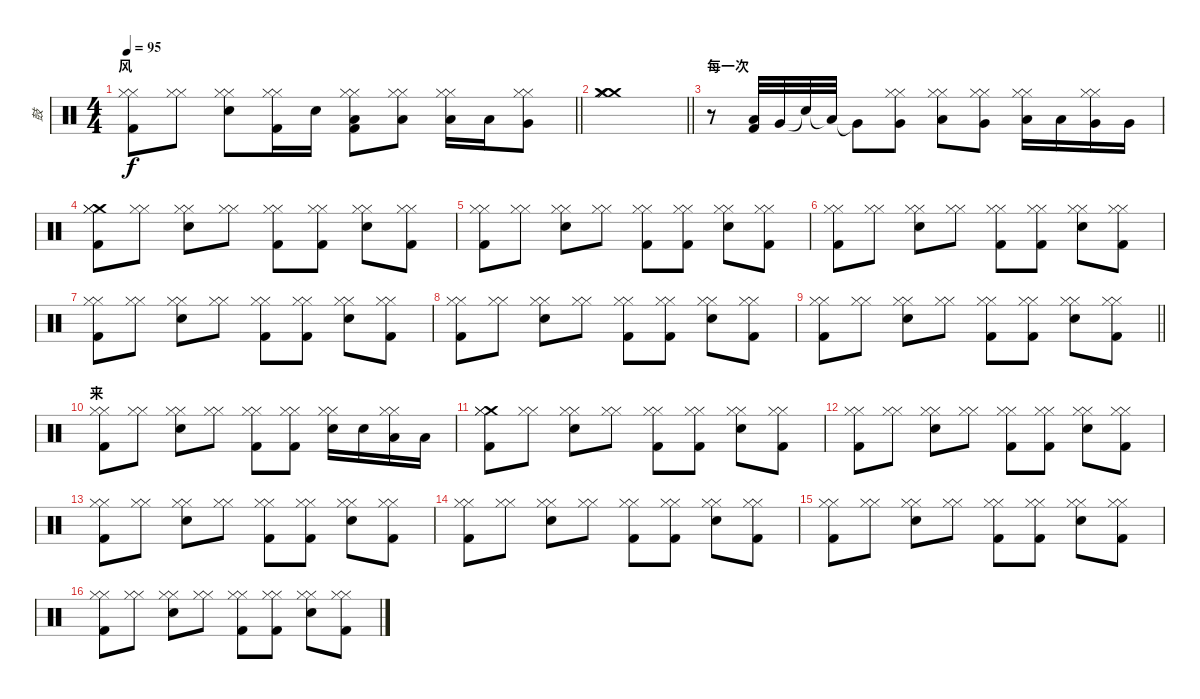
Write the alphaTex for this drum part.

\track ("鼓" "鼓") {instrument percussion}
\staff {score}
\articulation defaults
\ts (4 4)
\section ("" "风")
\tempo 95
\clef neutral
\barLineRight lightlight
\ks c
("Hi-Hat (closed)" "Hi-Hat (closed)" "Kick (hit) 2").8{dy f} ("Hi-Hat (closed)" "Hi-Hat (closed)").8 ("Hi-Hat (closed)" "Hi-Hat (closed)" "Metronome (bell)").8 ("Hi-Hat (closed)" "Hi-Hat (closed)" "Kick (hit) 2").16 "Metronome (bell)".16 ("Hi-Hat (closed)" "Hi-Hat (closed)" "Low Floor Tom (hit)" "Kick (hit) 2").8 ("Hi-Hat (closed)" "Hi-Hat (closed)" "Low Tom (hit)").8 ("Hi-Hat (closed)" "Hi-Hat (closed)" "Low Floor Tom (hit)").16{volume 11} "Low Tom (hit)".16{volume 12} ("Hi-Hat (closed)" "Hi-Hat (closed)" "Very Low Tom (hit)").8{volume 13} |
\section ("" "")
\barLineRight lightlight
("Crash medium (hit)" "Hi-Hat (closed)" "Hi-Hat (closed)" "Crash medium (hit)").1{volume 14} |
\section ("" "每一次")
r.8 ("Low Floor Tom (hit)" "Kick (hit) 2").32{volume 11} "Very Low Tom (hit)".32 "Snare (hit)"{t}.32 "Low Tom (hit)"{t}.32 "Very Low Tom (hit)"{t}.8 ("Very Low Tom (hit)" "Hi-Hat (closed)" "Hi-Hat (closed)").8{volume 11} ("Low Floor Tom (hit)" "Hi-Hat (closed)" "Hi-Hat (closed)").8 ("Very Low Tom (hit)" "Hi-Hat (closed)" "Hi-Hat (closed)").8 ("Hi-Hat (closed)" "Hi-Hat (closed)" "Low Floor Tom (hit)").16{volume 11} "Low Tom (hit)".16{volume 12} ("Hi-Hat (closed)" "Hi-Hat (closed)" "Very Low Tom (hit)").16{volume 13} "Very Low Tom (hit)".16{volume 14} |
("Crash medium (hit)" "Hi-Hat (closed)" "Hi-Hat (closed)" "Kick (hit) 2").8{volume 13} ("Hi-Hat (closed)" "Hi-Hat (closed)").8 ("Hi-Hat (closed)" "Hi-Hat (closed)" "Metronome (bell)").8 ("Hi-Hat (closed)" "Hi-Hat (closed)").8 ("Hi-Hat (closed)" "Hi-Hat (closed)" "Kick (hit) 2").8 ("Hi-Hat (closed)" "Hi-Hat (closed)" "Kick (hit) 2").8 ("Hi-Hat (closed)" "Hi-Hat (closed)" "Metronome (bell)").8 ("Hi-Hat (closed)" "Hi-Hat (closed)" "Kick (hit) 2").8 |
("Hi-Hat (closed)" "Hi-Hat (closed)" "Kick (hit) 2").8 ("Hi-Hat (closed)" "Hi-Hat (closed)").8 ("Hi-Hat (closed)" "Hi-Hat (closed)" "Metronome (bell)").8 ("Hi-Hat (closed)" "Hi-Hat (closed)").8 ("Hi-Hat (closed)" "Hi-Hat (closed)" "Kick (hit) 2").8 ("Hi-Hat (closed)" "Hi-Hat (closed)" "Kick (hit) 2").8 ("Hi-Hat (closed)" "Hi-Hat (closed)" "Metronome (bell)").8 ("Hi-Hat (closed)" "Hi-Hat (closed)" "Kick (hit) 2").8 |
("Hi-Hat (closed)" "Hi-Hat (closed)" "Kick (hit) 2").8 ("Hi-Hat (closed)" "Hi-Hat (closed)").8 ("Hi-Hat (closed)" "Hi-Hat (closed)" "Metronome (bell)").8 ("Hi-Hat (closed)" "Hi-Hat (closed)").8 ("Hi-Hat (closed)" "Hi-Hat (closed)" "Kick (hit) 2").8 ("Hi-Hat (closed)" "Hi-Hat (closed)" "Kick (hit) 2").8 ("Hi-Hat (closed)" "Hi-Hat (closed)" "Metronome (bell)").8 ("Hi-Hat (closed)" "Hi-Hat (closed)" "Kick (hit) 2").8 |
("Hi-Hat (closed)" "Hi-Hat (closed)" "Kick (hit) 2").8 ("Hi-Hat (closed)" "Hi-Hat (closed)").8 ("Hi-Hat (closed)" "Hi-Hat (closed)" "Metronome (bell)").8 ("Hi-Hat (closed)" "Hi-Hat (closed)").8 ("Hi-Hat (closed)" "Hi-Hat (closed)" "Kick (hit) 2").8 ("Hi-Hat (closed)" "Hi-Hat (closed)" "Kick (hit) 2").8 ("Hi-Hat (closed)" "Hi-Hat (closed)" "Metronome (bell)").8 ("Hi-Hat (closed)" "Hi-Hat (closed)" "Kick (hit) 2").8 |
("Hi-Hat (closed)" "Hi-Hat (closed)" "Kick (hit) 2").8 ("Hi-Hat (closed)" "Hi-Hat (closed)").8 ("Hi-Hat (closed)" "Hi-Hat (closed)" "Metronome (bell)").8 ("Hi-Hat (closed)" "Hi-Hat (closed)").8 ("Hi-Hat (closed)" "Hi-Hat (closed)" "Kick (hit) 2").8 ("Hi-Hat (closed)" "Hi-Hat (closed)" "Kick (hit) 2").8 ("Hi-Hat (closed)" "Hi-Hat (closed)" "Metronome (bell)").8 ("Hi-Hat (closed)" "Hi-Hat (closed)" "Kick (hit) 2").8 |
\barLineRight lightlight
("Hi-Hat (closed)" "Hi-Hat (closed)" "Kick (hit) 2").8 ("Hi-Hat (closed)" "Hi-Hat (closed)").8 ("Hi-Hat (closed)" "Hi-Hat (closed)" "Metronome (bell)").8 ("Hi-Hat (closed)" "Hi-Hat (closed)").8 ("Hi-Hat (closed)" "Hi-Hat (closed)" "Kick (hit) 2").8 ("Hi-Hat (closed)" "Hi-Hat (closed)" "Kick (hit) 2").8 ("Hi-Hat (closed)" "Hi-Hat (closed)" "Metronome (bell)").8 ("Hi-Hat (closed)" "Hi-Hat (closed)" "Kick (hit) 2").8 |
\section ("" "来")
("Hi-Hat (closed)" "Hi-Hat (closed)" "Kick (hit) 2").8 ("Hi-Hat (closed)" "Hi-Hat (closed)").8 ("Hi-Hat (closed)" "Hi-Hat (closed)" "Metronome (bell)").8 ("Hi-Hat (closed)" "Hi-Hat (closed)").8 ("Hi-Hat (closed)" "Hi-Hat (closed)" "Kick (hit) 2").8 ("Hi-Hat (closed)" "Hi-Hat (closed)" "Kick (hit) 2").8 ("Hi-Hat (closed)" "Hi-Hat (closed)" "Metronome (bell)").16{volume 11} "Metronome (bell)".16{volume 12} ("Hi-Hat (closed)" "Hi-Hat (closed)" "Low Tom (hit)").16{volume 13} "Low Tom (hit)".16{volume 14} |
("Crash medium (hit)" "Hi-Hat (closed)" "Hi-Hat (closed)" "Kick (hit) 2").8{volume 13} ("Hi-Hat (closed)" "Hi-Hat (closed)").8 ("Hi-Hat (closed)" "Hi-Hat (closed)" "Metronome (bell)").8 ("Hi-Hat (closed)" "Hi-Hat (closed)").8 ("Hi-Hat (closed)" "Hi-Hat (closed)" "Kick (hit) 2").8 ("Hi-Hat (closed)" "Hi-Hat (closed)" "Kick (hit) 2").8 ("Hi-Hat (closed)" "Hi-Hat (closed)" "Metronome (bell)").8 ("Hi-Hat (closed)" "Hi-Hat (closed)" "Kick (hit) 2").8 |
("Hi-Hat (closed)" "Hi-Hat (closed)" "Kick (hit) 2").8 ("Hi-Hat (closed)" "Hi-Hat (closed)").8 ("Hi-Hat (closed)" "Hi-Hat (closed)" "Metronome (bell)").8 ("Hi-Hat (closed)" "Hi-Hat (closed)").8 ("Hi-Hat (closed)" "Hi-Hat (closed)" "Kick (hit) 2").8 ("Hi-Hat (closed)" "Hi-Hat (closed)" "Kick (hit) 2").8 ("Hi-Hat (closed)" "Hi-Hat (closed)" "Metronome (bell)").8 ("Hi-Hat (closed)" "Hi-Hat (closed)" "Kick (hit) 2").8 |
("Hi-Hat (closed)" "Hi-Hat (closed)" "Kick (hit) 2").8 ("Hi-Hat (closed)" "Hi-Hat (closed)").8 ("Hi-Hat (closed)" "Hi-Hat (closed)" "Metronome (bell)").8 ("Hi-Hat (closed)" "Hi-Hat (closed)").8 ("Hi-Hat (closed)" "Hi-Hat (closed)" "Kick (hit) 2").8 ("Hi-Hat (closed)" "Hi-Hat (closed)" "Kick (hit) 2").8 ("Hi-Hat (closed)" "Hi-Hat (closed)" "Metronome (bell)").8 ("Hi-Hat (closed)" "Hi-Hat (closed)" "Kick (hit) 2").8 |
("Hi-Hat (closed)" "Hi-Hat (closed)" "Kick (hit) 2").8 ("Hi-Hat (closed)" "Hi-Hat (closed)").8 ("Hi-Hat (closed)" "Hi-Hat (closed)" "Metronome (bell)").8 ("Hi-Hat (closed)" "Hi-Hat (closed)").8 ("Hi-Hat (closed)" "Hi-Hat (closed)" "Kick (hit) 2").8 ("Hi-Hat (closed)" "Hi-Hat (closed)" "Kick (hit) 2").8 ("Hi-Hat (closed)" "Hi-Hat (closed)" "Metronome (bell)").8 ("Hi-Hat (closed)" "Hi-Hat (closed)" "Kick (hit) 2").8 |
("Hi-Hat (closed)" "Hi-Hat (closed)" "Kick (hit) 2").8 ("Hi-Hat (closed)" "Hi-Hat (closed)").8 ("Hi-Hat (closed)" "Hi-Hat (closed)" "Metronome (bell)").8 ("Hi-Hat (closed)" "Hi-Hat (closed)").8 ("Hi-Hat (closed)" "Hi-Hat (closed)" "Kick (hit) 2").8 ("Hi-Hat (closed)" "Hi-Hat (closed)" "Kick (hit) 2").8 ("Hi-Hat (closed)" "Hi-Hat (closed)" "Metronome (bell)").8 ("Hi-Hat (closed)" "Hi-Hat (closed)" "Kick (hit) 2").8 |
("Hi-Hat (closed)" "Hi-Hat (closed)" "Kick (hit) 2").8 ("Hi-Hat (closed)" "Hi-Hat (closed)").8 ("Hi-Hat (closed)" "Hi-Hat (closed)" "Metronome (bell)").8 ("Hi-Hat (closed)" "Hi-Hat (closed)").8 ("Hi-Hat (closed)" "Hi-Hat (closed)" "Kick (hit) 2").8 ("Hi-Hat (closed)" "Hi-Hat (closed)" "Kick (hit) 2").8 ("Hi-Hat (closed)" "Hi-Hat (closed)" "Metronome (bell)").8 ("Hi-Hat (closed)" "Hi-Hat (closed)" "Kick (hit) 2").8
